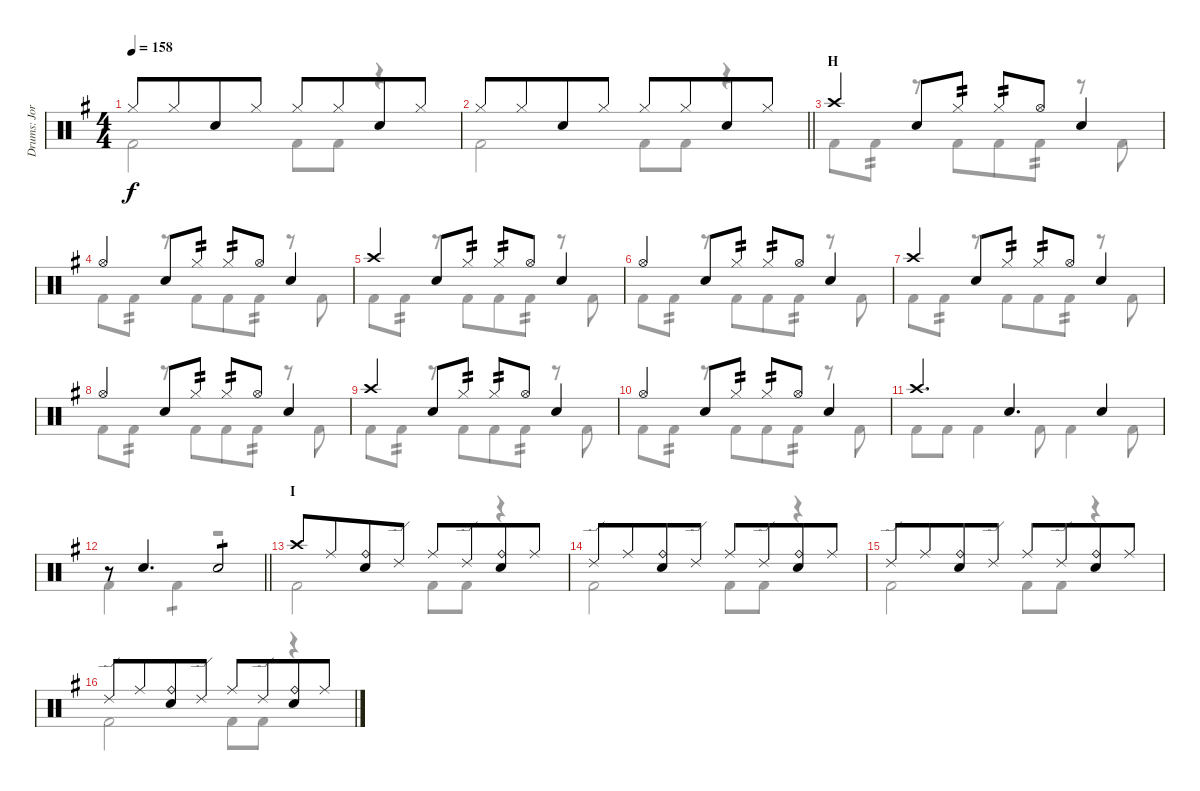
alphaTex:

\track ("Drums: Jorg" "Drums: Jor") {instrument percussion}
\staff {score}
\articulation defaults
\voice
\ts (4 4)
\tempo 158
\clef neutral
\ks g "Hi-Hat (closed)".8{dy f} "Hi-Hat (closed)".8{beam merge} "Snare (hit) 2".8 "Hi-Hat (closed)".8 "Hi-Hat (closed)".8 "Hi-Hat (closed)".8{beam merge} "Snare (hit) 2".8 "Hi-Hat (closed)".8
|
\barLineRight lightlight "Hi-Hat (closed)".8 "Hi-Hat (closed)".8{beam merge} "Snare (hit) 2".8 "Hi-Hat (closed)".8 "Hi-Hat (closed)".8 "Hi-Hat (closed)".8{beam merge} "Snare (hit) 2".8 "Hi-Hat (closed)".8
|
\section ("" "H")
"Crash high (hit)".4 "Snare (hit) 2".8 "Hi-Hat (closed)".8{tp 2} "Hi-Hat (closed)".8{tp 2} "Hi-Hat (open)".8 "Snare (hit) 2".4 |
"Hi-Hat (open)".4 "Snare (hit) 2".8 "Hi-Hat (closed)".8{tp 2} "Hi-Hat (closed)".8{tp 2} "Hi-Hat (open)".8 "Snare (hit) 2".4 |
"Crash high (hit)".4 "Snare (hit) 2".8 "Hi-Hat (closed)".8{tp 2} "Hi-Hat (closed)".8{tp 2} "Hi-Hat (open)".8 "Snare (hit) 2".4 |
"Hi-Hat (open)".4 "Snare (hit) 2".8 "Hi-Hat (closed)".8{tp 2} "Hi-Hat (closed)".8{tp 2} "Hi-Hat (open)".8 "Snare (hit) 2".4 |
"Crash high (hit)".4 "Snare (hit) 2".8 "Hi-Hat (closed)".8{tp 2} "Hi-Hat (closed)".8{tp 2} "Hi-Hat (open)".8 "Snare (hit) 2".4 |
"Hi-Hat (open)".4 "Snare (hit) 2".8 "Hi-Hat (closed)".8{tp 2} "Hi-Hat (closed)".8{tp 2} "Hi-Hat (open)".8 "Snare (hit) 2".4 |
"Crash high (hit)".4 "Snare (hit) 2".8 "Hi-Hat (closed)".8{tp 2} "Hi-Hat (closed)".8{tp 2} "Hi-Hat (open)".8 "Snare (hit) 2".4 |
"Hi-Hat (open)".4 "Snare (hit) 2".8 "Hi-Hat (closed)".8{tp 2} "Hi-Hat (closed)".8{tp 2} "Hi-Hat (open)".8 "Snare (hit) 2".4 |
"Crash high (hit)".4{d} "Snare (hit) 2".4{d} "Snare (hit) 2".4 |
\barLineRight lightlight
r.8 "Snare (hit) 2".4{d} "Snare (hit) 2".2{tp 1} |
\section ("" "I")
"Crash high (hit)".8 "Ride (middle)".8{beam merge} ("Ride (bell)" "Snare (hit) 2").8 "Ride (edge) 2".8 "Ride (middle)".8 "Ride (edge) 2".8{beam merge} ("Ride (bell)" "Snare (hit) 2").8 "Ride (middle)".8 |
"Ride (edge) 2".8 "Ride (middle)".8{beam merge} ("Ride (bell)" "Snare (hit) 2").8 "Ride (edge) 2".8 "Ride (middle)".8 "Ride (edge) 2".8{beam merge} ("Ride (bell)" "Snare (hit) 2").8 "Ride (middle)".8 |
"Ride (edge) 2".8 "Ride (middle)".8{beam merge} ("Ride (bell)" "Snare (hit) 2").8 "Ride (edge) 2".8 "Ride (middle)".8 "Ride (edge) 2".8{beam merge} ("Ride (bell)" "Snare (hit) 2").8 "Ride (middle)".8 |
"Ride (edge) 2".8 "Ride (middle)".8{beam merge} ("Ride (bell)" "Snare (hit) 2").8 "Ride (edge) 2".8 "Ride (middle)".8 "Ride (edge) 2".8{beam merge} ("Ride (bell)" "Snare (hit) 2").8 "Ride (middle)".8
\voice
\clef neutral
\ottava regular
\simile none
\ks g "Kick (hit) 2".2{dy f} "Kick (hit) 2".8 "Kick (hit) 2".8
r.4 |
\barLineRight lightlight "Kick (hit) 2".2 "Kick (hit) 2".8 "Kick (hit) 2".8
r.4 |
"Kick (hit) 2".8 "Kick (hit) 2".8{tp 2} r.8 "Kick (hit) 2".8{beam merge} "Kick (hit) 2".8 "Kick (hit) 2".8{tp 2} r.8 "Kick (hit) 2".8 |
"Kick (hit) 2".8 "Kick (hit) 2".8{tp 2} r.8 "Kick (hit) 2".8{beam merge} "Kick (hit) 2".8 "Kick (hit) 2".8{tp 2} r.8 "Kick (hit) 2".8 |
"Kick (hit) 2".8 "Kick (hit) 2".8{tp 2} r.8 "Kick (hit) 2".8{beam merge} "Kick (hit) 2".8 "Kick (hit) 2".8{tp 2} r.8 "Kick (hit) 2".8 |
"Kick (hit) 2".8 "Kick (hit) 2".8{tp 2} r.8 "Kick (hit) 2".8{beam merge} "Kick (hit) 2".8 "Kick (hit) 2".8{tp 2} r.8 "Kick (hit) 2".8 |
"Kick (hit) 2".8 "Kick (hit) 2".8{tp 2} r.8 "Kick (hit) 2".8{beam merge} "Kick (hit) 2".8 "Kick (hit) 2".8{tp 2} r.8 "Kick (hit) 2".8 |
"Kick (hit) 2".8 "Kick (hit) 2".8{tp 2} r.8 "Kick (hit) 2".8{beam merge} "Kick (hit) 2".8 "Kick (hit) 2".8{tp 2} r.8 "Kick (hit) 2".8 |
"Kick (hit) 2".8 "Kick (hit) 2".8{tp 2} r.8 "Kick (hit) 2".8{beam merge} "Kick (hit) 2".8 "Kick (hit) 2".8{tp 2} r.8 "Kick (hit) 2".8 |
"Kick (hit) 2".8 "Kick (hit) 2".8{tp 2} r.8 "Kick (hit) 2".8{beam merge} "Kick (hit) 2".8 "Kick (hit) 2".8{tp 2} r.8 "Kick (hit) 2".8 |
"Kick (hit) 2".8 "Kick (hit) 2".8 "Kick (hit) 2".4 "Kick (hit) 2".8 "Kick (hit) 2".4 "Kick (hit) 2".8 |
\barLineRight lightlight "Kick (hit) 2".4 "Kick (hit) 2".4{tp 1}
r.2 |
"Kick (hit) 2".2 "Kick (hit) 2".8 "Kick (hit) 2".8 r.4 |
"Kick (hit) 2".2 "Kick (hit) 2".8 "Kick (hit) 2".8 r.4 |
"Kick (hit) 2".2 "Kick (hit) 2".8 "Kick (hit) 2".8 r.4 |
"Kick (hit) 2".2 "Kick (hit) 2".8 "Kick (hit) 2".8 r.4
